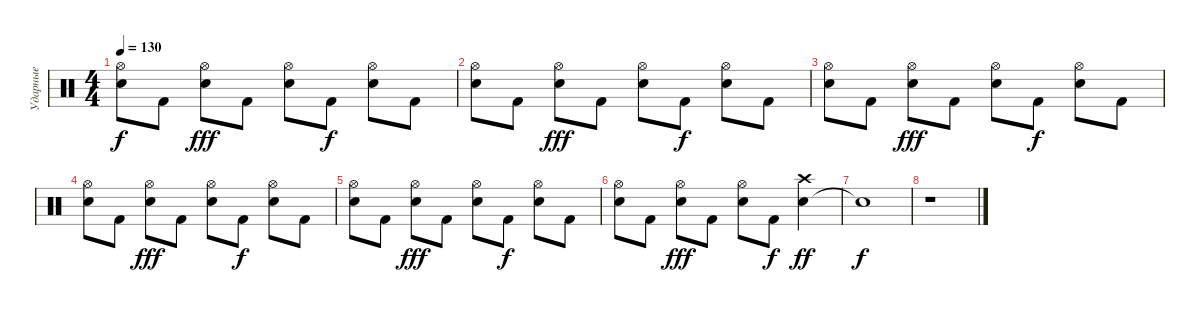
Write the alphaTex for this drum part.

\track ("Ударные" "Ударные") {instrument percussion}
\staff {score}
\articulation defaults
\ts (4 4)
\tempo 130
\clef neutral
\ks c
("Snare (hit) 2" "Hi-Hat (open)").8{dy f} "Kick (hit) 2".8 ("Snare (hit) 2" "Hi-Hat (open)").8{dy fff} "Kick (hit) 2".8 ("Snare (hit) 2" "Hi-Hat (open)").8 "Kick (hit) 2".8{dy f} ("Snare (hit) 2" "Hi-Hat (open)").8 "Kick (hit) 2".8 |
("Snare (hit) 2" "Hi-Hat (open)").8 "Kick (hit) 2".8 ("Snare (hit) 2" "Hi-Hat (open)").8{dy fff} "Kick (hit) 2".8 ("Snare (hit) 2" "Hi-Hat (open)").8 "Kick (hit) 2".8{dy f} ("Snare (hit) 2" "Hi-Hat (open)").8 "Kick (hit) 2".8 |
("Snare (hit) 2" "Hi-Hat (open)").8 "Kick (hit) 2".8 ("Snare (hit) 2" "Hi-Hat (open)").8{dy fff} "Kick (hit) 2".8 ("Snare (hit) 2" "Hi-Hat (open)").8 "Kick (hit) 2".8{dy f} ("Snare (hit) 2" "Hi-Hat (open)").8 "Kick (hit) 2".8 |
("Snare (hit) 2" "Hi-Hat (open)").8 "Kick (hit) 2".8 ("Snare (hit) 2" "Hi-Hat (open)").8{dy fff} "Kick (hit) 2".8 ("Snare (hit) 2" "Hi-Hat (open)").8 "Kick (hit) 2".8{dy f} ("Snare (hit) 2" "Hi-Hat (open)").8 "Kick (hit) 2".8 |
("Snare (hit) 2" "Hi-Hat (open)").8 "Kick (hit) 2".8 ("Snare (hit) 2" "Hi-Hat (open)").8{dy fff} "Kick (hit) 2".8 ("Snare (hit) 2" "Hi-Hat (open)").8 "Kick (hit) 2".8{dy f} ("Snare (hit) 2" "Hi-Hat (open)").8 "Kick (hit) 2".8 |
("Snare (hit) 2" "Hi-Hat (open)").8 "Kick (hit) 2".8 ("Snare (hit) 2" "Hi-Hat (open)").8{dy fff} "Kick (hit) 2".8 ("Snare (hit) 2" "Hi-Hat (open)").8 "Kick (hit) 2".8{dy f} ("Snare (hit) 2" "Crash high (hit)").4{dy ff} |
"Snare (hit)"{t}.1{dy f} |
r.1
